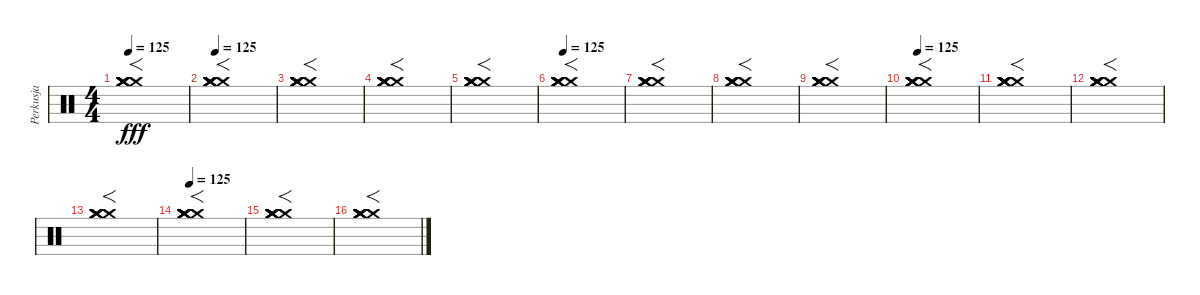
\track ("Perkusja" "Perkusja") {instrument percussion}
\staff {score}
\articulation defaults
\ts (4 4)
\tempo 125
\clef neutral
\ks c
("Crash medium (hit)" "Crash medium (hit)" "Crash medium (hit)" "Crash medium (hit)" "Crash medium (hit)" "Crash medium (hit)").1{f dy fff} |
\tempo 125
("Crash medium (hit)" "Crash medium (hit)" "Crash medium (hit)" "Crash medium (hit)" "Crash medium (hit)" "Crash medium (hit)").1{f balance 12} |
("Crash medium (hit)" "Crash medium (hit)" "Crash medium (hit)" "Crash medium (hit)" "Crash medium (hit)" "Crash medium (hit)").1{f} |
("Crash medium (hit)" "Crash medium (hit)" "Crash medium (hit)" "Crash medium (hit)" "Crash medium (hit)" "Crash medium (hit)").1{f} |
("Crash medium (hit)" "Crash medium (hit)" "Crash medium (hit)" "Crash medium (hit)" "Crash medium (hit)" "Crash medium (hit)").1{f} |
\tempo 125
("Crash medium (hit)" "Crash medium (hit)" "Crash medium (hit)" "Crash medium (hit)" "Crash medium (hit)" "Crash medium (hit)").1{f balance 12} |
("Crash medium (hit)" "Crash medium (hit)" "Crash medium (hit)" "Crash medium (hit)" "Crash medium (hit)" "Crash medium (hit)").1{f} |
("Crash medium (hit)" "Crash medium (hit)" "Crash medium (hit)" "Crash medium (hit)" "Crash medium (hit)" "Crash medium (hit)").1{f} |
("Crash medium (hit)" "Crash medium (hit)" "Crash medium (hit)" "Crash medium (hit)" "Crash medium (hit)" "Crash medium (hit)").1{f} |
\tempo 125
("Crash medium (hit)" "Crash medium (hit)" "Crash medium (hit)" "Crash medium (hit)" "Crash medium (hit)" "Crash medium (hit)").1{f balance 12} |
("Crash medium (hit)" "Crash medium (hit)" "Crash medium (hit)" "Crash medium (hit)" "Crash medium (hit)" "Crash medium (hit)").1{f} |
("Crash medium (hit)" "Crash medium (hit)" "Crash medium (hit)" "Crash medium (hit)" "Crash medium (hit)" "Crash medium (hit)").1{f} |
("Crash medium (hit)" "Crash medium (hit)" "Crash medium (hit)" "Crash medium (hit)" "Crash medium (hit)" "Crash medium (hit)").1{f} |
\tempo 125
("Crash medium (hit)" "Crash medium (hit)" "Crash medium (hit)" "Crash medium (hit)" "Crash medium (hit)" "Crash medium (hit)").1{f balance 12} |
("Crash medium (hit)" "Crash medium (hit)" "Crash medium (hit)" "Crash medium (hit)" "Crash medium (hit)" "Crash medium (hit)").1{f} |
("Crash medium (hit)" "Crash medium (hit)" "Crash medium (hit)" "Crash medium (hit)" "Crash medium (hit)" "Crash medium (hit)").1{f}
